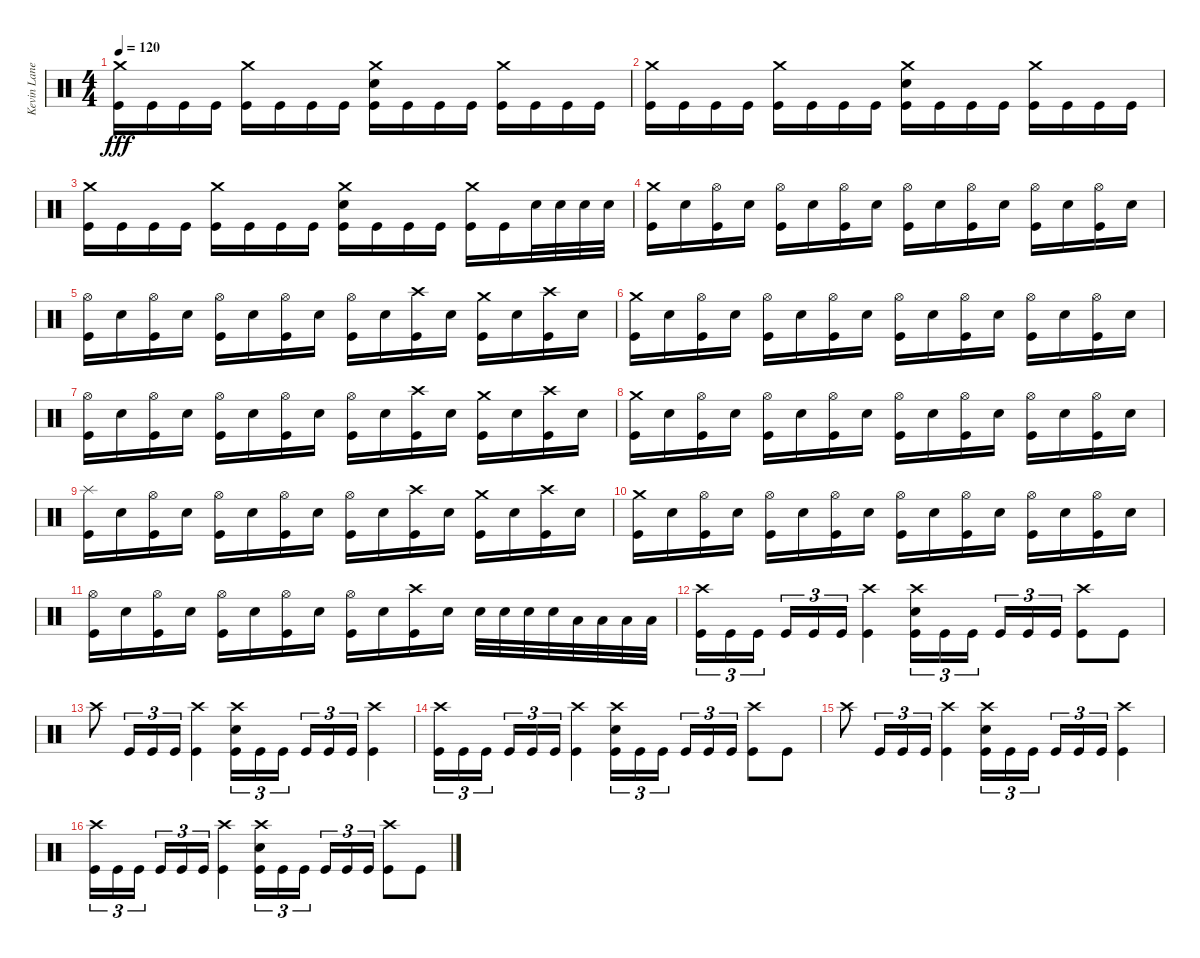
\track ("Kevin Lane" "Kevin Lane") {instrument percussion}
\staff {score}
\articulation defaults
\ts (4 4)
\tempo 120
\clef neutral
\ks c
("Crash medium (hit)" "Kick (hit)").16{dy fff} "Kick (hit)".16 "Kick (hit)".16 "Kick (hit)".16 ("Crash medium (hit)" "Kick (hit)").16 "Kick (hit)".16 "Kick (hit)".16 "Kick (hit)".16 ("Crash medium (hit)" "Snare (hit) 2" "Kick (hit)").16 "Kick (hit)".16 "Kick (hit)".16 "Kick (hit)".16 ("Crash medium (hit)" "Kick (hit)").16 "Kick (hit)".16 "Kick (hit)".16 "Kick (hit)".16 |
("Crash medium (hit)" "Kick (hit)").16 "Kick (hit)".16 "Kick (hit)".16 "Kick (hit)".16 ("Crash medium (hit)" "Kick (hit)").16 "Kick (hit)".16 "Kick (hit)".16 "Kick (hit)".16 ("Crash medium (hit)" "Snare (hit) 2" "Kick (hit)").16 "Kick (hit)".16 "Kick (hit)".16 "Kick (hit)".16 ("Crash medium (hit)" "Kick (hit)").16 "Kick (hit)".16 "Kick (hit)".16 "Kick (hit)".16 |
("Crash medium (hit)" "Kick (hit)").16 "Kick (hit)".16 "Kick (hit)".16 "Kick (hit)".16 ("Crash medium (hit)" "Kick (hit)").16 "Kick (hit)".16 "Kick (hit)".16 "Kick (hit)".16 ("Crash medium (hit)" "Snare (hit) 2" "Kick (hit)").16 "Kick (hit)".16 "Kick (hit)".16 "Kick (hit)".16 ("Crash medium (hit)" "Kick (hit)").16 "Kick (hit)".16 "Snare (hit) 2".32 "Snare (hit) 2".32 "Snare (hit) 2".32 "Snare (hit) 2".32 |
("Crash medium (hit)" "Kick (hit)").16 "Snare (hit) 2".16 ("Hi-Hat (open)" "Kick (hit)").16 "Snare (hit) 2".16 ("Hi-Hat (open)" "Kick (hit)").16 "Snare (hit) 2".16 ("Hi-Hat (open)" "Kick (hit)").16 "Snare (hit) 2".16 ("Hi-Hat (open)" "Kick (hit)").16 "Snare (hit) 2".16 ("Hi-Hat (open)" "Kick (hit)").16 "Snare (hit) 2".16 ("Hi-Hat (open)" "Kick (hit)").16 "Snare (hit) 2".16 ("Hi-Hat (open)" "Kick (hit)").16 "Snare (hit) 2".16 |
("Hi-Hat (open)" "Kick (hit)").16 "Snare (hit) 2".16 ("Hi-Hat (open)" "Kick (hit)").16 "Snare (hit) 2".16 ("Hi-Hat (open)" "Kick (hit)").16 "Snare (hit) 2".16 ("Hi-Hat (open)" "Kick (hit)").16 "Snare (hit) 2".16 ("Hi-Hat (open)" "Kick (hit)").16 "Snare (hit) 2".16 ("Crash high (hit)" "Kick (hit)").16 "Snare (hit) 2".16 ("Crash medium (hit)" "Kick (hit)").16 "Snare (hit) 2".16 ("Crash high (hit)" "Kick (hit)").16 "Snare (hit) 2".16 |
("Crash medium (hit)" "Kick (hit)").16 "Snare (hit) 2".16 ("Hi-Hat (open)" "Kick (hit)").16 "Snare (hit) 2".16 ("Hi-Hat (open)" "Kick (hit)").16 "Snare (hit) 2".16 ("Hi-Hat (open)" "Kick (hit)").16 "Snare (hit) 2".16 ("Hi-Hat (open)" "Kick (hit)").16 "Snare (hit) 2".16 ("Hi-Hat (open)" "Kick (hit)").16 "Snare (hit) 2".16 ("Hi-Hat (open)" "Kick (hit)").16 "Snare (hit) 2".16 ("Hi-Hat (open)" "Kick (hit)").16 "Snare (hit) 2".16 |
("Hi-Hat (open)" "Kick (hit)").16 "Snare (hit) 2".16 ("Hi-Hat (open)" "Kick (hit)").16 "Snare (hit) 2".16 ("Hi-Hat (open)" "Kick (hit)").16 "Snare (hit) 2".16 ("Hi-Hat (open)" "Kick (hit)").16 "Snare (hit) 2".16 ("Hi-Hat (open)" "Kick (hit)").16 "Snare (hit) 2".16 ("Crash high (hit)" "Kick (hit)").16 "Snare (hit) 2".16 ("Crash medium (hit)" "Kick (hit)").16 "Snare (hit) 2".16 ("Crash high (hit)" "Kick (hit)").16 "Snare (hit) 2".16 |
("Crash medium (hit)" "Kick (hit)").16 "Snare (hit) 2".16 ("Hi-Hat (open)" "Kick (hit)").16 "Snare (hit) 2".16 ("Hi-Hat (open)" "Kick (hit)").16 "Snare (hit) 2".16 ("Hi-Hat (open)" "Kick (hit)").16 "Snare (hit) 2".16 ("Hi-Hat (open)" "Kick (hit)").16 "Snare (hit) 2".16 ("Hi-Hat (open)" "Kick (hit)").16 "Snare (hit) 2".16 ("Hi-Hat (open)" "Kick (hit)").16 "Snare (hit) 2".16 ("Hi-Hat (open)" "Kick (hit)").16 "Snare (hit) 2".16 |
("Splash (hit)" "Kick (hit)").16 "Snare (hit) 2".16 ("Hi-Hat (open)" "Kick (hit)").16 "Snare (hit) 2".16 ("Hi-Hat (open)" "Kick (hit)").16 "Snare (hit) 2".16 ("Hi-Hat (open)" "Kick (hit)").16 "Snare (hit) 2".16 ("Hi-Hat (open)" "Kick (hit)").16 "Snare (hit) 2".16 ("Crash high (hit)" "Kick (hit)").16 "Snare (hit) 2".16 ("Crash medium (hit)" "Kick (hit)").16 "Snare (hit) 2".16 ("Crash high (hit)" "Kick (hit)").16 "Snare (hit) 2".16 |
("Crash medium (hit)" "Kick (hit)").16 "Snare (hit) 2".16 ("Hi-Hat (open)" "Kick (hit)").16 "Snare (hit) 2".16 ("Hi-Hat (open)" "Kick (hit)").16 "Snare (hit) 2".16 ("Hi-Hat (open)" "Kick (hit)").16 "Snare (hit) 2".16 ("Hi-Hat (open)" "Kick (hit)").16 "Snare (hit) 2".16 ("Hi-Hat (open)" "Kick (hit)").16 "Snare (hit) 2".16 ("Hi-Hat (open)" "Kick (hit)").16 "Snare (hit) 2".16 ("Hi-Hat (open)" "Kick (hit)").16 "Snare (hit) 2".16 |
("Hi-Hat (open)" "Kick (hit)").16 "Snare (hit) 2".16 ("Hi-Hat (open)" "Kick (hit)").16 "Snare (hit) 2".16 ("Hi-Hat (open)" "Kick (hit)").16 "Snare (hit) 2".16 ("Hi-Hat (open)" "Kick (hit)").16 "Snare (hit) 2".16 ("Hi-Hat (open)" "Kick (hit)").16 "Snare (hit) 2".16 ("Crash high (hit)" "Kick (hit)").16 "Snare (hit) 2".16 "Snare (hit) 2".32 "Snare (hit) 2".32 "Snare (hit) 2".32 "Snare (hit) 2".32 "Low Tom (hit)".32 "Low Tom (hit)".32 "Low Tom (hit)".32 "Low Tom (hit)".32 |
("Crash high (hit)" "Kick (hit)").16{tu (3 2)} "Kick (hit)".16{tu (3 2)} "Kick (hit)".16{tu (3 2) beam splitsecondary} "Kick (hit)".16{tu (3 2)} "Kick (hit)".16{tu (3 2)} "Kick (hit)".16{tu (3 2)} ("Crash high (hit)" "Kick (hit)").4 ("Crash high (hit)" "Snare (hit) 2" "Kick (hit)").16{tu (3 2)} "Kick (hit)".16{tu (3 2)} "Kick (hit)".16{tu (3 2) beam splitsecondary} "Kick (hit)".16{tu (3 2)} "Kick (hit)".16{tu (3 2)} "Kick (hit)".16{tu (3 2)} ("Crash high (hit)" "Kick (hit)").8 "Kick (hit)".8 |
"Crash high (hit)".8 "Kick (hit)".16{tu (3 2)} "Kick (hit)".16{tu (3 2)} "Kick (hit)".16{tu (3 2)} ("Crash high (hit)" "Kick (hit)").4 ("Crash high (hit)" "Snare (hit) 2" "Kick (hit)").16{tu (3 2)} "Kick (hit)".16{tu (3 2)} "Kick (hit)".16{tu (3 2) beam splitsecondary} "Kick (hit)".16{tu (3 2)} "Kick (hit)".16{tu (3 2)} "Kick (hit)".16{tu (3 2)} ("Crash high (hit)" "Kick (hit)").4 |
("Crash high (hit)" "Kick (hit)").16{tu (3 2)} "Kick (hit)".16{tu (3 2)} "Kick (hit)".16{tu (3 2) beam splitsecondary} "Kick (hit)".16{tu (3 2)} "Kick (hit)".16{tu (3 2)} "Kick (hit)".16{tu (3 2)} ("Crash high (hit)" "Kick (hit)").4 ("Crash high (hit)" "Snare (hit) 2" "Kick (hit)").16{tu (3 2)} "Kick (hit)".16{tu (3 2)} "Kick (hit)".16{tu (3 2) beam splitsecondary} "Kick (hit)".16{tu (3 2)} "Kick (hit)".16{tu (3 2)} "Kick (hit)".16{tu (3 2)} ("Crash high (hit)" "Kick (hit)").8 "Kick (hit)".8 |
"Crash high (hit)".8 "Kick (hit)".16{tu (3 2)} "Kick (hit)".16{tu (3 2)} "Kick (hit)".16{tu (3 2)} ("Crash high (hit)" "Kick (hit)").4 ("Crash high (hit)" "Snare (hit) 2" "Kick (hit)").16{tu (3 2)} "Kick (hit)".16{tu (3 2)} "Kick (hit)".16{tu (3 2) beam splitsecondary} "Kick (hit)".16{tu (3 2)} "Kick (hit)".16{tu (3 2)} "Kick (hit)".16{tu (3 2)} ("Crash high (hit)" "Kick (hit)").4 |
("Crash high (hit)" "Kick (hit)").16{tu (3 2)} "Kick (hit)".16{tu (3 2)} "Kick (hit)".16{tu (3 2) beam splitsecondary} "Kick (hit)".16{tu (3 2)} "Kick (hit)".16{tu (3 2)} "Kick (hit)".16{tu (3 2)} ("Crash high (hit)" "Kick (hit)").4 ("Crash high (hit)" "Snare (hit) 2" "Kick (hit)").16{tu (3 2)} "Kick (hit)".16{tu (3 2)} "Kick (hit)".16{tu (3 2) beam splitsecondary} "Kick (hit)".16{tu (3 2)} "Kick (hit)".16{tu (3 2)} "Kick (hit)".16{tu (3 2)} ("Crash high (hit)" "Kick (hit)").8 "Kick (hit)".8
